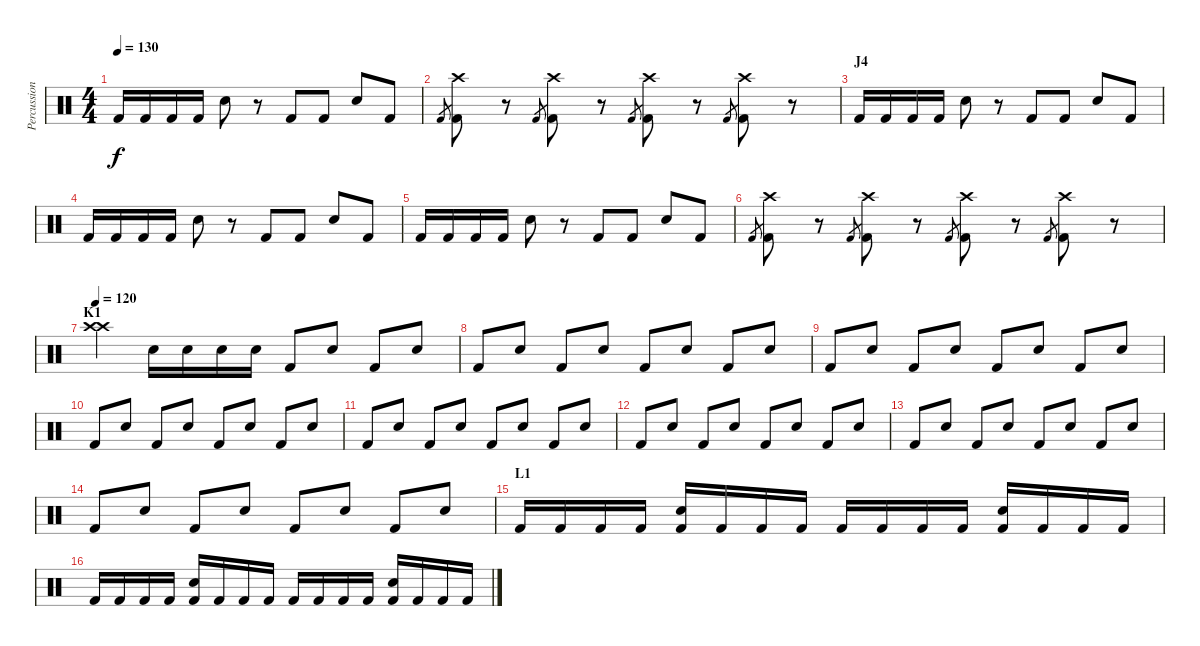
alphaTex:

\track ("Percussion" "Percussion") {instrument percussion}
\staff {score}
\articulation defaults
\ts (4 4)
\tempo 130
\clef neutral
\ks c "Kick (hit) 2".16{dy f} "Kick (hit) 2".16 "Kick (hit) 2".16 "Kick (hit) 2".16 "Electric Snare (hit)".8
r.8 "Kick (hit) 2".8 "Kick (hit) 2".8 "Electric Snare (hit)".8 "Kick (hit) 2".8 |
"Kick (hit) 2".8{gr} ("Kick (hit) 2" "Crash high (hit)").8 r.8 "Kick (hit) 2".8{gr} ("Kick (hit) 2" "Crash high (hit)").8 r.8 "Kick (hit) 2".8{gr} ("Kick (hit) 2" "Crash high (hit)").8 r.8 "Kick (hit) 2".8{gr} ("Kick (hit) 2" "Crash high (hit)").8 r.8 |
\section ("" "J4")
"Kick (hit) 2".16 "Kick (hit) 2".16 "Kick (hit) 2".16 "Kick (hit) 2".16 "Electric Snare (hit)".8 r.8 "Kick (hit) 2".8 "Kick (hit) 2".8 "Electric Snare (hit)".8 "Kick (hit) 2".8 |
"Kick (hit) 2".16 "Kick (hit) 2".16 "Kick (hit) 2".16 "Kick (hit) 2".16 "Electric Snare (hit)".8 r.8 "Kick (hit) 2".8 "Kick (hit) 2".8 "Electric Snare (hit)".8 "Kick (hit) 2".8 |
"Kick (hit) 2".16 "Kick (hit) 2".16 "Kick (hit) 2".16 "Kick (hit) 2".16 "Electric Snare (hit)".8 r.8 "Kick (hit) 2".8 "Kick (hit) 2".8 "Electric Snare (hit)".8 "Kick (hit) 2".8 |
"Kick (hit) 2".8{gr} ("Kick (hit) 2" "Crash high (hit)").8 r.8 "Kick (hit) 2".8{gr} ("Kick (hit) 2" "Crash high (hit)").8 r.8 "Kick (hit) 2".8{gr} ("Kick (hit) 2" "Crash high (hit)").8 r.8 "Kick (hit) 2".8{gr} ("Kick (hit) 2" "Crash high (hit)").8 r.8 |
\section ("" "K1")
\tempo 120
("Crash high (hit)" "Crash high (hit)").4 "Electric Snare (hit)".16 "Electric Snare (hit)".16 "Electric Snare (hit)".16 "Electric Snare (hit)".16 "Kick (hit) 2".8 "Electric Snare (hit)".8 "Kick (hit) 2".8 "Electric Snare (hit)".8 |
"Kick (hit) 2".8 "Electric Snare (hit)".8 "Kick (hit) 2".8 "Electric Snare (hit)".8 "Kick (hit) 2".8 "Electric Snare (hit)".8 "Kick (hit) 2".8 "Electric Snare (hit)".8 |
"Kick (hit) 2".8 "Electric Snare (hit)".8 "Kick (hit) 2".8 "Electric Snare (hit)".8 "Kick (hit) 2".8 "Electric Snare (hit)".8 "Kick (hit) 2".8 "Electric Snare (hit)".8 |
"Kick (hit) 2".8 "Electric Snare (hit)".8 "Kick (hit) 2".8 "Electric Snare (hit)".8 "Kick (hit) 2".8 "Electric Snare (hit)".8 "Kick (hit) 2".8 "Electric Snare (hit)".8 |
"Kick (hit) 2".8 "Electric Snare (hit)".8 "Kick (hit) 2".8 "Electric Snare (hit)".8 "Kick (hit) 2".8 "Electric Snare (hit)".8 "Kick (hit) 2".8 "Electric Snare (hit)".8 |
"Kick (hit) 2".8 "Electric Snare (hit)".8 "Kick (hit) 2".8 "Electric Snare (hit)".8 "Kick (hit) 2".8 "Electric Snare (hit)".8 "Kick (hit) 2".8 "Electric Snare (hit)".8 |
"Kick (hit) 2".8 "Electric Snare (hit)".8 "Kick (hit) 2".8 "Electric Snare (hit)".8 "Kick (hit) 2".8 "Electric Snare (hit)".8 "Kick (hit) 2".8 "Electric Snare (hit)".8 |
"Kick (hit) 2".8 "Electric Snare (hit)".8 "Kick (hit) 2".8 "Electric Snare (hit)".8 "Kick (hit) 2".8 "Electric Snare (hit)".8 "Kick (hit) 2".8 "Electric Snare (hit)".8 |
\section ("" "L1")
"Kick (hit) 2".16 "Kick (hit) 2".16 "Kick (hit) 2".16 "Kick (hit) 2".16 ("Kick (hit) 2" "Electric Snare (hit)").16 "Kick (hit) 2".16 "Kick (hit) 2".16 "Kick (hit) 2".16 "Kick (hit) 2".16 "Kick (hit) 2".16 "Kick (hit) 2".16 "Kick (hit) 2".16 ("Kick (hit) 2" "Electric Snare (hit)").16 "Kick (hit) 2".16 "Kick (hit) 2".16 "Kick (hit) 2".16 |
"Kick (hit) 2".16 "Kick (hit) 2".16 "Kick (hit) 2".16 "Kick (hit) 2".16 ("Kick (hit) 2" "Electric Snare (hit)").16 "Kick (hit) 2".16 "Kick (hit) 2".16 "Kick (hit) 2".16 "Kick (hit) 2".16 "Kick (hit) 2".16 "Kick (hit) 2".16 "Kick (hit) 2".16 ("Kick (hit) 2" "Electric Snare (hit)").16 "Kick (hit) 2".16 "Kick (hit) 2".16 "Kick (hit) 2".16
